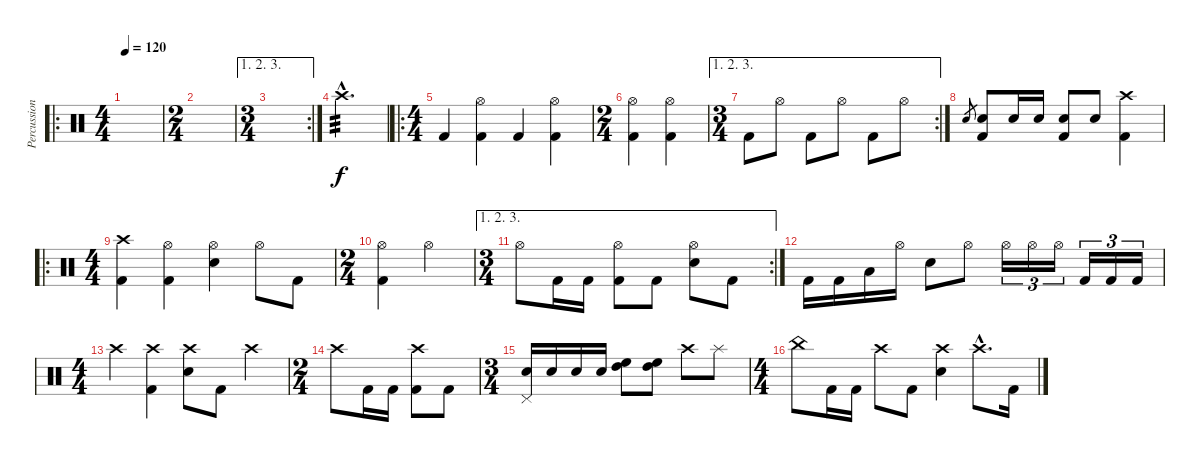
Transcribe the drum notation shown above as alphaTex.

\track ("Percussion" "Percussion") {instrument percussion}
\staff {score}
\articulation defaults
\ro
\ts (4 4)
\tempo 120
\clef neutral
\ks aminor
|
\ts (2 4)
|
\ae (1 2 3)
\rc 2
\ts (3 4)
|
"Crash high (hit)"{hac}.2{d tp 3 volume 16} |
\ro
\ts (4 4)
"Kick (hit) 2".4 ("Hi-Hat (open)" "Kick (hit) 2").4 "Kick (hit) 2".4 ("Hi-Hat (open)" "Kick (hit) 2").4 |
\ts (2 4)
("Hi-Hat (open)" "Kick (hit) 2").4 ("Hi-Hat (open)" "Kick (hit) 2").4 |
\ae (1 2 3)
\rc 2
\ts (3 4)
"Kick (hit) 2".8 "Hi-Hat (open)".8 "Kick (hit) 2".8 "Hi-Hat (open)".8 "Kick (hit) 2".8 "Hi-Hat (open)".8 |
"Electric Snare (hit)".8{gr} ("Electric Snare (hit)" "Kick (hit) 2").8 "Electric Snare (hit)".16 "Electric Snare (hit)".16 ("Electric Snare (hit)" "Kick (hit) 2").8 "Electric Snare (hit)".8 ("Crash high (hit)" "Kick (hit) 2").4{volume 0} |
\ro
\ts (4 4)
("Crash high (hit)" "Kick (hit) 2").4{volume 16} ("Hi-Hat (open)" "Kick (hit) 2").4 ("Hi-Hat (open)" "Electric Snare (hit)").4 "Hi-Hat (open)".8 "Kick (hit) 2".8 |
\ts (2 4)
("Hi-Hat (open)" "Kick (hit) 2").4 "Hi-Hat (open)".4 |
\ae (1 2 3)
\rc 2
\ts (3 4)
"Hi-Hat (open)".8 "Kick (hit) 2".16 "Kick (hit) 2".16 ("Hi-Hat (open)" "Kick (hit) 2").8 "Kick (hit) 2".8 ("Hi-Hat (open)" "Electric Snare (hit)").8 "Kick (hit) 2".8 |
"Kick (hit) 2".16 "Kick (hit) 2".16 "Low Tom (hit)".16 "Hi-Hat (open)".16 "Electric Snare (hit)".8 "Hi-Hat (open)".8 "Hi-Hat (open)".16{tu (3 2)} "Hi-Hat (open)".16{tu (3 2)} "Hi-Hat (open)".16{tu (3 2)} "Kick (hit) 2".16{tu (3 2)} "Kick (hit) 2".16{tu (3 2)} "Kick (hit) 2".16{tu (3 2)} |
\ts (4 4)
"Crash high (hit)".4 ("Crash high (hit)" "Kick (hit) 2").4 ("Crash high (hit)" "Electric Snare (hit)").8 "Kick (hit) 2".8 "Crash high (hit)".4 |
\ts (2 4)
"Crash high (hit)".8 "Kick (hit) 2".16 "Kick (hit) 2".16 ("Crash high (hit)" "Kick (hit) 2").8 "Kick (hit) 2".8 |
\ts (3 4)
("Electric Snare (hit)" "Pedal Hi-Hat (hit)").16 "Electric Snare (hit)".16 "Electric Snare (hit)".16 "Electric Snare (hit)".16 ("High Tom (hit)" "High Floor Tom (hit)").8 ("High Tom (hit)" "High Floor Tom (hit)").8 "Crash high (hit)".8 "Splash (hit)".8 |
\ts (4 4)
"China (hit)".8 "Kick (hit) 2".16 "Kick (hit) 2".16 "Crash high (hit)".8 "Kick (hit) 2".8 ("Crash high (hit)" "Electric Snare (hit)").4 "Crash high (hit)"{hac}.8{d} "Kick (hit) 2".16
